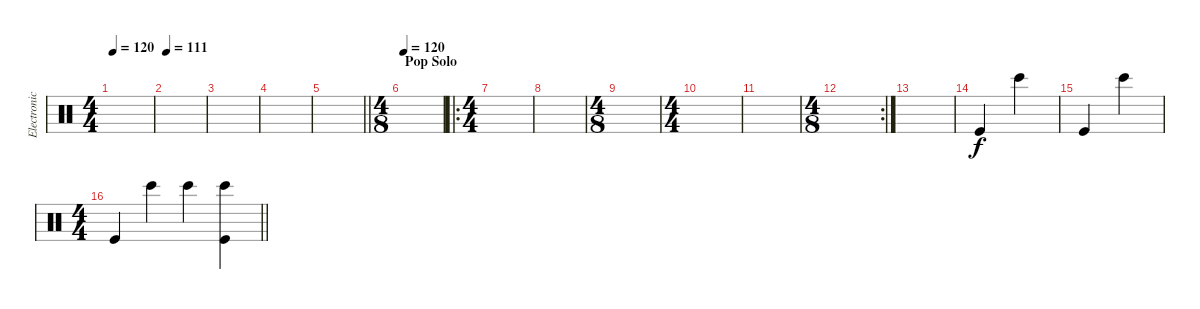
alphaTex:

\track ("Electronic Drums" "Electronic") {instrument percussion}
\staff {score}
\articulation defaults
\ts (4 4)
\tempo 120
\clef neutral
\ks c
|
\tempo 111
|
|
|
\barLineRight lightlight
|
\ts (4 8)
\section ("" "Pop Solo")
\tempo 90
\tempo 120
|
\ro
\ts (4 4)
|
|
\ts (4 8)
|
\ts (4 4)
|
|
\rc 2
\ts (4 8)
|
|
"Kick (hit)".4 "Bongo High (hit)".4 |
"Kick (hit)".4 "Bongo High (hit)".4 |
\ts (4 4)
\barLineRight lightlight "Kick (hit)".4 "Bongo High (hit)".4 "Bongo High (hit)".4
("Bongo High (hit)" "Kick (hit)").4
